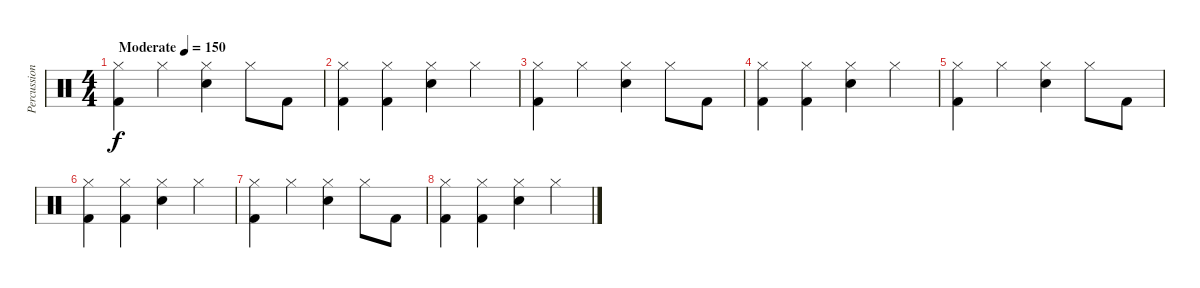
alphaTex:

\track ("Percussion" "Percussion") {instrument percussion}
\staff {score}
\articulation defaults
\ts (4 4)
\tempo (150 "Moderate")
\clef neutral
\ks c
("Hi-Hat (closed)" "Kick (hit) 2").4{dy f} "Hi-Hat (closed)".4 ("Hi-Hat (closed)" "Snare (hit) 2").4 "Hi-Hat (closed)".8 "Kick (hit) 2".8 |
("Hi-Hat (closed)" "Kick (hit) 2").4 ("Hi-Hat (closed)" "Kick (hit) 2").4 ("Hi-Hat (closed)" "Snare (hit) 2").4 "Hi-Hat (closed)".4 |
("Hi-Hat (closed)" "Kick (hit) 2").4 "Hi-Hat (closed)".4 ("Hi-Hat (closed)" "Snare (hit) 2").4 "Hi-Hat (closed)".8 "Kick (hit) 2".8 |
("Hi-Hat (closed)" "Kick (hit) 2").4 ("Hi-Hat (closed)" "Kick (hit) 2").4 ("Hi-Hat (closed)" "Snare (hit) 2").4 "Hi-Hat (closed)".4 |
("Hi-Hat (closed)" "Kick (hit) 2").4 "Hi-Hat (closed)".4 ("Hi-Hat (closed)" "Snare (hit) 2").4 "Hi-Hat (closed)".8 "Kick (hit) 2".8 |
("Hi-Hat (closed)" "Kick (hit) 2").4 ("Hi-Hat (closed)" "Kick (hit) 2").4 ("Hi-Hat (closed)" "Snare (hit) 2").4 "Hi-Hat (closed)".4 |
("Hi-Hat (closed)" "Kick (hit) 2").4 "Hi-Hat (closed)".4 ("Hi-Hat (closed)" "Snare (hit) 2").4 "Hi-Hat (closed)".8 "Kick (hit) 2".8 |
("Hi-Hat (closed)" "Kick (hit) 2").4 ("Hi-Hat (closed)" "Kick (hit) 2").4 ("Hi-Hat (closed)" "Snare (hit) 2").4 "Hi-Hat (closed)".4
